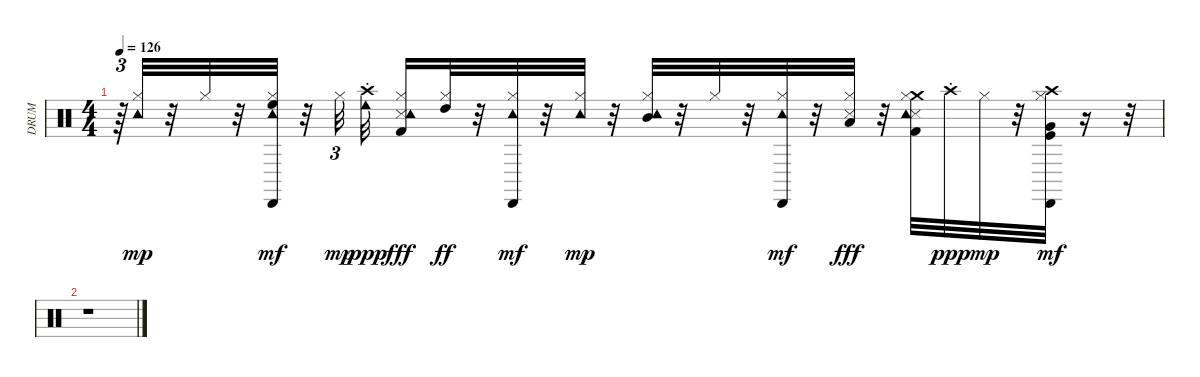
\track ("DRUM" "DRUM") {instrument percussion}
\staff {score}
\articulation defaults
\ts (4 4)
\tempo 126
\clef neutral
\ks c
r.64{tu (3 2) dy mp} ("Hi-Hat (closed)" "Tambourine (hit)").32 r.32 "Hi-Hat (closed)".32 r.32 ("Hi-Hat (closed)" "High Floor Tom (hit)" "Tambourine (hit)" "Cabasa (hit)").32{dy mf} r.32 "Hi-Hat (closed)".32{tu (3 2) dy mp} ("Cowbell low (hit)" "Crash high (choke)").32{dy ppp} ("Snare (side stick) 3" "Hi-Hat (closed)" "Tambourine (hit)" "Kick (hit) 2").16{dy fff} ("Hi-Hat (closed)" "High Tom (hit)").32{dy ff} r.32 ("Hi-Hat (closed)" "Tambourine (hit)" "Cabasa (hit)").32{dy mf} r.32 ("Hi-Hat (closed)" "Tambourine (hit)").32{dy mp} r.32 ("Hi-Hat (closed)" "Mid Tom (hit)" "Tambourine (hit)").32 r.32 "Hi-Hat (closed)".32 r.32 ("Hi-Hat (closed)" "Tambourine (hit)" "Cabasa (hit)").32{dy mf} r.32 ("Snare (side stick) 3" "Hi-Hat (closed)" "Low Tom (hit)").32{dy fff} r.32 ("Crash medium (hit)" "Snare (side stick) 3" "Hi-Hat (closed)" "Tambourine (hit)" "Kick (hit) 2").32 "Crash high (choke)".32{dy ppp} "Hi-Hat (closed)".32{dy mp} r.32 ("Kick (hit)" "Crash high (hit)" "Hi-Hat (closed)" "Very Low Tom (hit)" "Cabasa (hit)").32{dy mf} r.16 r.32 |
r.1
